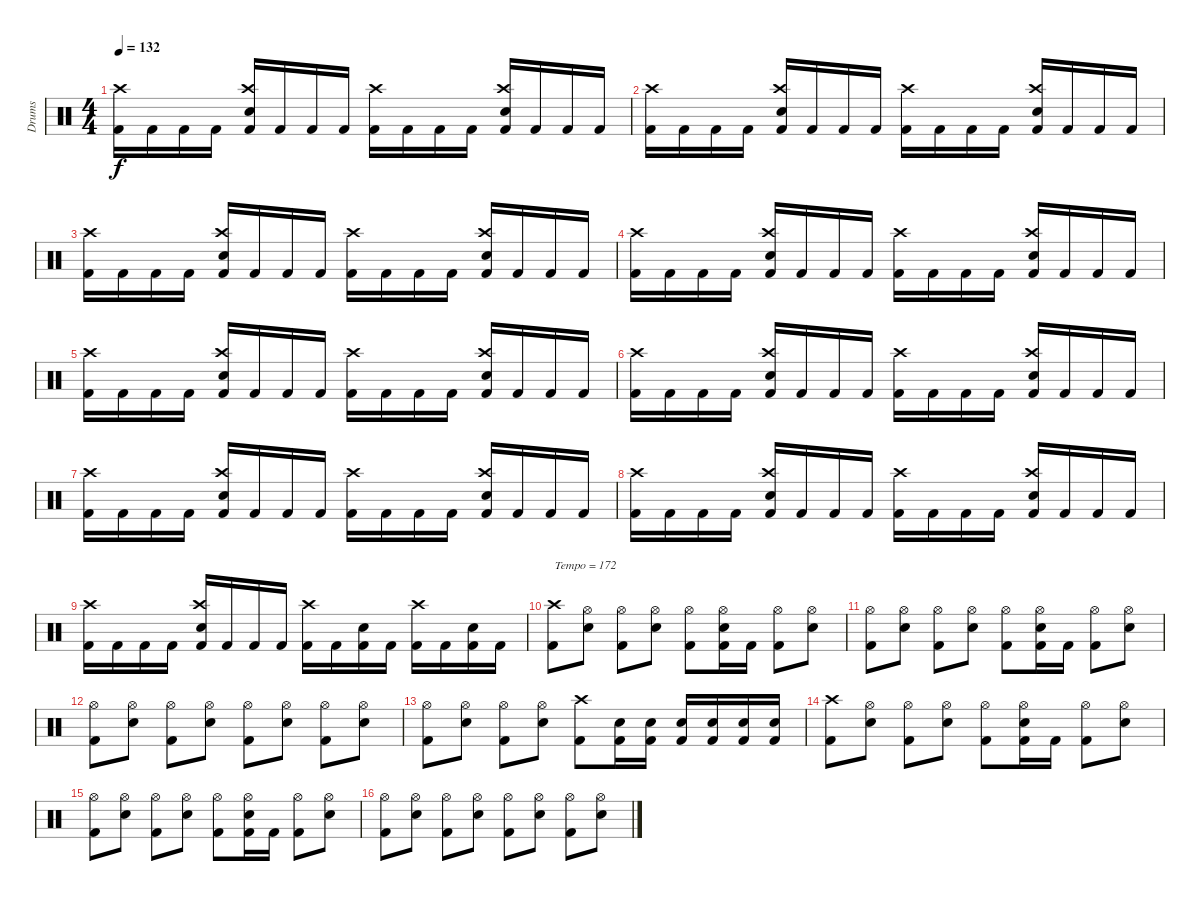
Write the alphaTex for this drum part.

\track ("Drums" "Drums") {instrument percussion}
\staff {score}
\articulation defaults
\ts (4 4)
\tempo 132
\clef neutral
\ks c
("Kick (hit) 2" "Crash high (hit)").16{dy f} "Kick (hit) 2".16 "Kick (hit) 2".16 "Kick (hit) 2".16 ("Kick (hit) 2" "Snare (hit) 2" "Crash high (hit)").16 "Kick (hit) 2".16 "Kick (hit) 2".16 "Kick (hit) 2".16 ("Kick (hit) 2" "Crash high (hit)").16 "Kick (hit) 2".16 "Kick (hit) 2".16 "Kick (hit) 2".16 ("Kick (hit) 2" "Snare (hit) 2" "Crash high (hit)").16 "Kick (hit) 2".16 "Kick (hit) 2".16 "Kick (hit) 2".16 |
("Kick (hit) 2" "Crash high (hit)").16 "Kick (hit) 2".16 "Kick (hit) 2".16 "Kick (hit) 2".16 ("Kick (hit) 2" "Snare (hit) 2" "Crash high (hit)").16 "Kick (hit) 2".16 "Kick (hit) 2".16 "Kick (hit) 2".16 ("Kick (hit) 2" "Crash high (hit)").16 "Kick (hit) 2".16 "Kick (hit) 2".16 "Kick (hit) 2".16 ("Kick (hit) 2" "Snare (hit) 2" "Crash high (hit)").16 "Kick (hit) 2".16 "Kick (hit) 2".16 "Kick (hit) 2".16 |
("Kick (hit) 2" "Crash high (hit)").16 "Kick (hit) 2".16 "Kick (hit) 2".16 "Kick (hit) 2".16 ("Kick (hit) 2" "Snare (hit) 2" "Crash high (hit)").16 "Kick (hit) 2".16 "Kick (hit) 2".16 "Kick (hit) 2".16 ("Kick (hit) 2" "Crash high (hit)").16 "Kick (hit) 2".16 "Kick (hit) 2".16 "Kick (hit) 2".16 ("Kick (hit) 2" "Snare (hit) 2" "Crash high (hit)").16 "Kick (hit) 2".16 "Kick (hit) 2".16 "Kick (hit) 2".16 |
("Kick (hit) 2" "Crash high (hit)").16 "Kick (hit) 2".16 "Kick (hit) 2".16 "Kick (hit) 2".16 ("Kick (hit) 2" "Snare (hit) 2" "Crash high (hit)").16 "Kick (hit) 2".16 "Kick (hit) 2".16 "Kick (hit) 2".16 ("Kick (hit) 2" "Crash high (hit)").16 "Kick (hit) 2".16 "Kick (hit) 2".16 "Kick (hit) 2".16 ("Kick (hit) 2" "Snare (hit) 2" "Crash high (hit)").16 "Kick (hit) 2".16 "Kick (hit) 2".16 "Kick (hit) 2".16 |
("Kick (hit) 2" "Crash high (hit)").16 "Kick (hit) 2".16 "Kick (hit) 2".16 "Kick (hit) 2".16 ("Kick (hit) 2" "Snare (hit) 2" "Crash high (hit)").16 "Kick (hit) 2".16 "Kick (hit) 2".16 "Kick (hit) 2".16 ("Kick (hit) 2" "Crash high (hit)").16 "Kick (hit) 2".16 "Kick (hit) 2".16 "Kick (hit) 2".16 ("Kick (hit) 2" "Snare (hit) 2" "Crash high (hit)").16 "Kick (hit) 2".16 "Kick (hit) 2".16 "Kick (hit) 2".16 |
("Kick (hit) 2" "Crash high (hit)").16 "Kick (hit) 2".16 "Kick (hit) 2".16 "Kick (hit) 2".16 ("Kick (hit) 2" "Snare (hit) 2" "Crash high (hit)").16 "Kick (hit) 2".16 "Kick (hit) 2".16 "Kick (hit) 2".16 ("Kick (hit) 2" "Crash high (hit)").16 "Kick (hit) 2".16 "Kick (hit) 2".16 "Kick (hit) 2".16 ("Kick (hit) 2" "Snare (hit) 2" "Crash high (hit)").16 "Kick (hit) 2".16 "Kick (hit) 2".16 "Kick (hit) 2".16 |
("Kick (hit) 2" "Crash high (hit)").16 "Kick (hit) 2".16 "Kick (hit) 2".16 "Kick (hit) 2".16 ("Kick (hit) 2" "Snare (hit) 2" "Crash high (hit)").16 "Kick (hit) 2".16 "Kick (hit) 2".16 "Kick (hit) 2".16 ("Kick (hit) 2" "Crash high (hit)").16 "Kick (hit) 2".16 "Kick (hit) 2".16 "Kick (hit) 2".16 ("Kick (hit) 2" "Snare (hit) 2" "Crash high (hit)").16 "Kick (hit) 2".16 "Kick (hit) 2".16 "Kick (hit) 2".16 |
("Kick (hit) 2" "Crash high (hit)").16 "Kick (hit) 2".16 "Kick (hit) 2".16 "Kick (hit) 2".16 ("Kick (hit) 2" "Snare (hit) 2" "Crash high (hit)").16 "Kick (hit) 2".16 "Kick (hit) 2".16 "Kick (hit) 2".16 ("Kick (hit) 2" "Crash high (hit)").16 "Kick (hit) 2".16 "Kick (hit) 2".16 "Kick (hit) 2".16 ("Kick (hit) 2" "Snare (hit) 2" "Crash high (hit)").16 "Kick (hit) 2".16 "Kick (hit) 2".16 "Kick (hit) 2".16 |
("Kick (hit) 2" "Crash high (hit)").16 "Kick (hit) 2".16 "Kick (hit) 2".16 "Kick (hit) 2".16 ("Kick (hit) 2" "Snare (hit) 2" "Crash high (hit)").16 "Kick (hit) 2".16 "Kick (hit) 2".16 "Kick (hit) 2".16 ("Kick (hit) 2" "Crash high (hit)").16 "Kick (hit) 2".16 ("Kick (hit) 2" "Snare (hit) 2").16 "Kick (hit) 2".16 ("Kick (hit) 2" "Crash high (hit)").16 "Kick (hit) 2".16 ("Kick (hit) 2" "Snare (hit) 2").16 "Kick (hit) 2".16 |
("Kick (hit) 2" "Crash high (hit)").8{txt "Tempo = 172"} ("Snare (hit) 2" "Hi-Hat (open)").8 ("Kick (hit) 2" "Hi-Hat (open)").8 ("Snare (hit) 2" "Hi-Hat (open)").8 ("Kick (hit) 2" "Hi-Hat (open)").8 ("Kick (hit) 2" "Snare (hit) 2" "Hi-Hat (open)").16 "Kick (hit) 2".16 ("Kick (hit) 2" "Hi-Hat (open)").8 ("Snare (hit) 2" "Hi-Hat (open)").8 |
("Kick (hit) 2" "Hi-Hat (open)").8 ("Snare (hit) 2" "Hi-Hat (open)").8 ("Kick (hit) 2" "Hi-Hat (open)").8 ("Snare (hit) 2" "Hi-Hat (open)").8 ("Kick (hit) 2" "Hi-Hat (open)").8 ("Kick (hit) 2" "Snare (hit) 2" "Hi-Hat (open)").16 "Kick (hit) 2".16 ("Kick (hit) 2" "Hi-Hat (open)").8 ("Snare (hit) 2" "Hi-Hat (open)").8 |
("Kick (hit) 2" "Hi-Hat (open)").8 ("Snare (hit) 2" "Hi-Hat (open)").8 ("Kick (hit) 2" "Hi-Hat (open)").8 ("Snare (hit) 2" "Hi-Hat (open)").8 ("Kick (hit) 2" "Hi-Hat (open)").8 ("Snare (hit) 2" "Hi-Hat (open)").8 ("Kick (hit) 2" "Hi-Hat (open)").8 ("Snare (hit) 2" "Hi-Hat (open)").8 |
("Kick (hit) 2" "Hi-Hat (open)").8 ("Snare (hit) 2" "Hi-Hat (open)").8 ("Kick (hit) 2" "Hi-Hat (open)").8 ("Snare (hit) 2" "Hi-Hat (open)").8 ("Kick (hit) 2" "Crash high (hit)").8 ("Kick (hit) 2" "Snare (hit) 2").16 ("Kick (hit) 2" "Snare (hit) 2").16 ("Kick (hit) 2" "Snare (hit) 2").16 ("Kick (hit) 2" "Snare (hit) 2").16 ("Kick (hit) 2" "Snare (hit) 2").16 ("Kick (hit) 2" "Snare (hit) 2").16 |
("Kick (hit) 2" "Crash high (hit)").8 ("Snare (hit) 2" "Hi-Hat (open)").8 ("Kick (hit) 2" "Hi-Hat (open)").8 ("Snare (hit) 2" "Hi-Hat (open)").8 ("Kick (hit) 2" "Hi-Hat (open)").8 ("Kick (hit) 2" "Snare (hit) 2" "Hi-Hat (open)").16 "Kick (hit) 2".16 ("Kick (hit) 2" "Hi-Hat (open)").8 ("Snare (hit) 2" "Hi-Hat (open)").8 |
("Kick (hit) 2" "Hi-Hat (open)").8 ("Snare (hit) 2" "Hi-Hat (open)").8 ("Kick (hit) 2" "Hi-Hat (open)").8 ("Snare (hit) 2" "Hi-Hat (open)").8 ("Kick (hit) 2" "Hi-Hat (open)").8 ("Kick (hit) 2" "Snare (hit) 2" "Hi-Hat (open)").16 "Kick (hit) 2".16 ("Kick (hit) 2" "Hi-Hat (open)").8 ("Snare (hit) 2" "Hi-Hat (open)").8 |
("Kick (hit) 2" "Hi-Hat (open)").8 ("Snare (hit) 2" "Hi-Hat (open)").8 ("Kick (hit) 2" "Hi-Hat (open)").8 ("Snare (hit) 2" "Hi-Hat (open)").8 ("Kick (hit) 2" "Hi-Hat (open)").8 ("Snare (hit) 2" "Hi-Hat (open)").8 ("Kick (hit) 2" "Hi-Hat (open)").8 ("Snare (hit) 2" "Hi-Hat (open)").8
